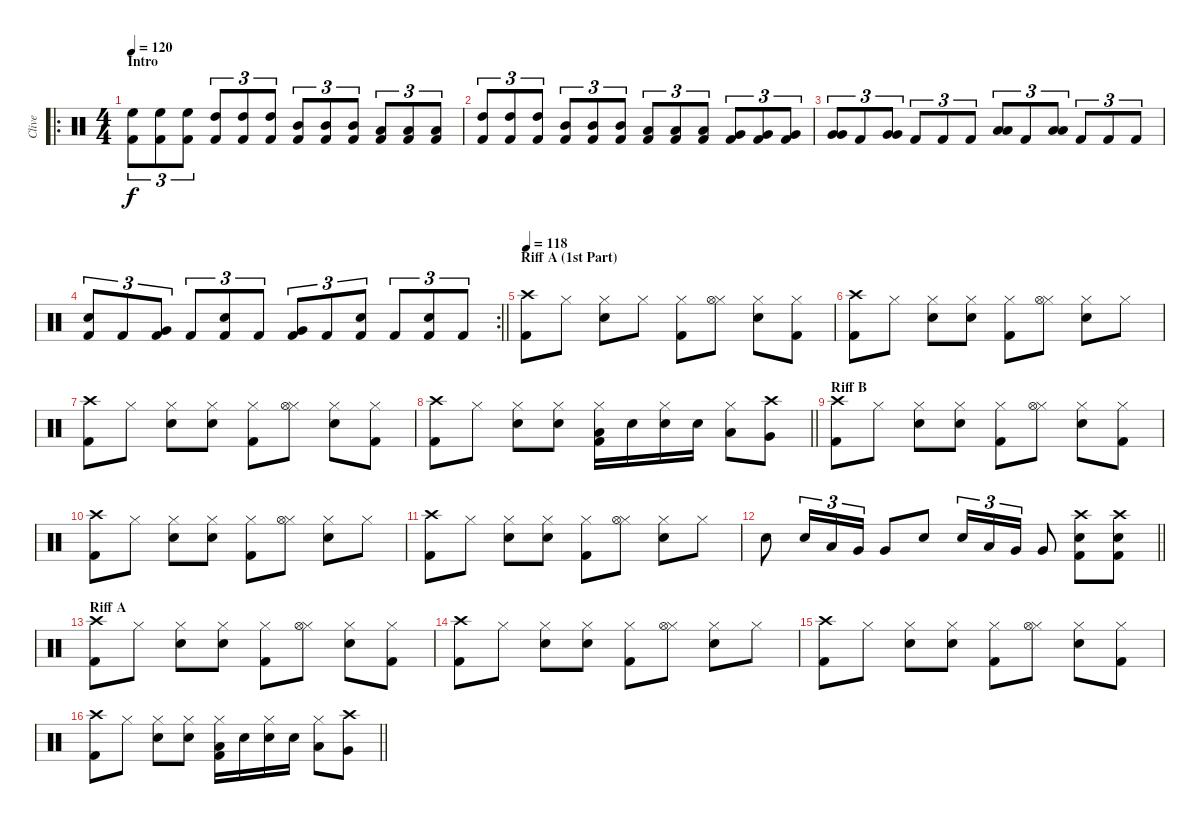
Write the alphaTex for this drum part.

\track ("Clive" "Clive") {instrument percussion}
\staff {score}
\articulation defaults
\ro
\ts (4 4)
\section ("" "Intro")
\tempo 120
\tempo 188
\tempo 120
\clef neutral
\ks c
("Kick (hit) 2" "High Floor Tom (hit)").8{tu (3 2) dy f} ("Kick (hit) 2" "High Floor Tom (hit)").8{tu (3 2)} ("Kick (hit) 2" "High Floor Tom (hit)").8{tu (3 2)} ("Kick (hit) 2" "High Tom (hit)").8{tu (3 2)} ("Kick (hit) 2" "High Tom (hit)").8{tu (3 2)} ("Kick (hit) 2" "High Tom (hit)").8{tu (3 2)} ("Kick (hit) 2" "Mid Tom (hit)").8{tu (3 2)} ("Kick (hit) 2" "Mid Tom (hit)").8{tu (3 2)} ("Kick (hit) 2" "Mid Tom (hit)").8{tu (3 2)} ("Kick (hit) 2" "Low Tom (hit)").8{tu (3 2)} ("Kick (hit) 2" "Low Tom (hit)").8{tu (3 2)} ("Kick (hit) 2" "Low Tom (hit)").8{tu (3 2)} |
("Kick (hit) 2" "High Tom (hit)").8{tu (3 2)} ("Kick (hit) 2" "High Tom (hit)").8{tu (3 2)} ("Kick (hit) 2" "High Tom (hit)").8{tu (3 2)} ("Kick (hit) 2" "Mid Tom (hit)").8{tu (3 2)} ("Kick (hit) 2" "Mid Tom (hit)").8{tu (3 2)} ("Kick (hit) 2" "Mid Tom (hit)").8{tu (3 2)} ("Kick (hit) 2" "Low Tom (hit)").8{tu (3 2)} ("Kick (hit) 2" "Low Tom (hit)").8{tu (3 2)} ("Kick (hit) 2" "Low Tom (hit)").8{tu (3 2)} ("Kick (hit) 2" "Very Low Tom (hit)").8{tu (3 2)} ("Kick (hit) 2" "Very Low Tom (hit)").8{tu (3 2)} ("Kick (hit) 2" "Very Low Tom (hit)").8{tu (3 2)} |
("Very Low Tom (hit)" "Very Low Tom (hit)").8{tu (3 2)} "Kick (hit) 2".8{tu (3 2)} ("Very Low Tom (hit)" "Very Low Tom (hit)").8{tu (3 2)} "Kick (hit) 2".8{tu (3 2)} "Kick (hit) 2".8{tu (3 2)} "Kick (hit) 2".8{tu (3 2)} ("Low Tom (hit)" "Low Tom (hit)").8{tu (3 2)} "Kick (hit) 2".8{tu (3 2)} ("Low Tom (hit)" "Low Tom (hit)").8{tu (3 2)} "Kick (hit) 2".8{tu (3 2)} "Kick (hit) 2".8{tu (3 2)} "Kick (hit) 2".8{tu (3 2)} |
\rc 2
\barLineRight lightlight
("Kick (hit) 2" "Snare (hit) 2").8{tu (3 2)} "Kick (hit) 2".8{tu (3 2)} ("Kick (hit) 2" "Very Low Tom (hit)").8{tu (3 2)} "Kick (hit) 2".8{tu (3 2)} ("Kick (hit) 2" "Snare (hit) 2").8{tu (3 2)} "Kick (hit) 2".8{tu (3 2)} ("Kick (hit) 2" "Very Low Tom (hit)").8{tu (3 2)} "Kick (hit) 2".8{tu (3 2)} ("Kick (hit) 2" "Snare (hit) 2").8{tu (3 2)} "Kick (hit) 2".8{tu (3 2)} ("Kick (hit) 2" "Snare (hit) 2").8{tu (3 2)} "Kick (hit) 2".8{tu (3 2)} |
\section ("" "Riff A (1st Part)")
\tempo 118
("Crash high (hit)" "Kick (hit) 2").8 "Hi-Hat (closed)".8 ("Hi-Hat (closed)" "Snare (hit) 2").8 "Hi-Hat (closed)".8 ("Hi-Hat (closed)" "Kick (hit) 2").8 ("Hi-Hat (closed)" "Hi-Hat (open)").8 ("Hi-Hat (closed)" "Snare (hit) 2").8 ("Hi-Hat (closed)" "Kick (hit) 2").8 |
("Crash high (hit)" "Kick (hit) 2").8 "Hi-Hat (closed)".8 ("Hi-Hat (closed)" "Snare (hit) 2").8 ("Hi-Hat (closed)" "Snare (hit) 2").8 ("Hi-Hat (closed)" "Kick (hit) 2").8 ("Hi-Hat (closed)" "Hi-Hat (open)").8 ("Hi-Hat (closed)" "Snare (hit) 2").8 "Hi-Hat (closed)".8 |
("Crash high (hit)" "Kick (hit) 2").8 "Hi-Hat (closed)".8 ("Hi-Hat (closed)" "Snare (hit) 2").8 ("Hi-Hat (closed)" "Snare (hit) 2").8 ("Hi-Hat (closed)" "Kick (hit) 2").8 ("Hi-Hat (closed)" "Hi-Hat (open)").8 ("Hi-Hat (closed)" "Snare (hit) 2").8 ("Hi-Hat (closed)" "Kick (hit) 2").8 |
\barLineRight lightlight
("Crash high (hit)" "Kick (hit) 2").8 "Hi-Hat (closed)".8 ("Hi-Hat (closed)" "Snare (hit) 2").8 ("Hi-Hat (closed)" "Snare (hit) 2").8 ("Hi-Hat (closed)" "Kick (hit) 2" "Low Tom (hit)").16 "Snare (hit) 2".16 ("Hi-Hat (closed)" "Snare (hit) 2").16 "Snare (hit) 2".16 ("Hi-Hat (closed)" "Low Tom (hit)").8 ("Crash high (hit)" "Very Low Tom (hit)").8 |
\section ("" "Riff B")
("Crash high (hit)" "Kick (hit) 2").8 "Hi-Hat (closed)".8 ("Hi-Hat (closed)" "Snare (hit) 2").8 ("Hi-Hat (closed)" "Snare (hit) 2").8 ("Hi-Hat (closed)" "Kick (hit) 2").8 ("Hi-Hat (closed)" "Hi-Hat (open)").8 ("Hi-Hat (closed)" "Snare (hit) 2").8 ("Hi-Hat (closed)" "Kick (hit) 2").8 |
("Crash high (hit)" "Kick (hit) 2").8 "Hi-Hat (closed)".8 ("Hi-Hat (closed)" "Snare (hit) 2").8 ("Hi-Hat (closed)" "Snare (hit) 2").8 ("Hi-Hat (closed)" "Kick (hit) 2").8 ("Hi-Hat (closed)" "Hi-Hat (open)").8 ("Hi-Hat (closed)" "Snare (hit) 2").8 "Hi-Hat (closed)".8 |
("Crash high (hit)" "Kick (hit) 2").8 "Hi-Hat (closed)".8 ("Hi-Hat (closed)" "Snare (hit) 2").8 ("Hi-Hat (closed)" "Snare (hit) 2").8 ("Hi-Hat (closed)" "Kick (hit) 2").8 ("Hi-Hat (closed)" "Hi-Hat (open)").8 ("Hi-Hat (closed)" "Snare (hit) 2").8 "Hi-Hat (closed)".8 |
\barLineRight lightlight "Snare (hit) 2".8 "Snare (hit) 2".16{tu (3 2)} "Low Tom (hit)".16{tu (3 2)} "Very Low Tom (hit)".16{tu (3 2)} "Very Low Tom (hit)".8 "Snare (hit) 2".8 "Snare (hit) 2".16{tu (3 2)} "Low Tom (hit)".16{tu (3 2)} "Very Low Tom (hit)".16{tu (3 2)} "Very Low Tom (hit)".8
("Crash high (hit)" "Snare (hit) 2" "Kick (hit) 2").8 ("Crash high (hit)" "Snare (hit) 2" "Kick (hit) 2").8 |
\section ("" "Riff A")
("Crash high (hit)" "Kick (hit) 2").8 "Hi-Hat (closed)".8 ("Hi-Hat (closed)" "Snare (hit) 2").8 ("Hi-Hat (closed)" "Snare (hit) 2").8 ("Hi-Hat (closed)" "Kick (hit) 2").8 ("Hi-Hat (closed)" "Hi-Hat (open)").8 ("Hi-Hat (closed)" "Snare (hit) 2").8 ("Hi-Hat (closed)" "Kick (hit) 2").8 |
("Crash high (hit)" "Kick (hit) 2").8 "Hi-Hat (closed)".8 ("Hi-Hat (closed)" "Snare (hit) 2").8 ("Hi-Hat (closed)" "Snare (hit) 2").8 ("Hi-Hat (closed)" "Kick (hit) 2").8 ("Hi-Hat (closed)" "Hi-Hat (open)").8 ("Hi-Hat (closed)" "Snare (hit) 2").8 "Hi-Hat (closed)".8 |
("Crash high (hit)" "Kick (hit) 2").8 "Hi-Hat (closed)".8 ("Hi-Hat (closed)" "Snare (hit) 2").8 ("Hi-Hat (closed)" "Snare (hit) 2").8 ("Hi-Hat (closed)" "Kick (hit) 2").8 ("Hi-Hat (closed)" "Hi-Hat (open)").8 ("Hi-Hat (closed)" "Snare (hit) 2").8 ("Hi-Hat (closed)" "Kick (hit) 2").8 |
\barLineRight lightlight
("Crash high (hit)" "Kick (hit) 2").8 "Hi-Hat (closed)".8 ("Hi-Hat (closed)" "Snare (hit) 2").8 ("Hi-Hat (closed)" "Snare (hit) 2").8 ("Hi-Hat (closed)" "Kick (hit) 2" "Low Tom (hit)").16 "Snare (hit) 2".16 ("Hi-Hat (closed)" "Snare (hit) 2").16 "Snare (hit) 2".16 ("Hi-Hat (closed)" "Low Tom (hit)").8 ("Crash high (hit)" "Very Low Tom (hit)").8
